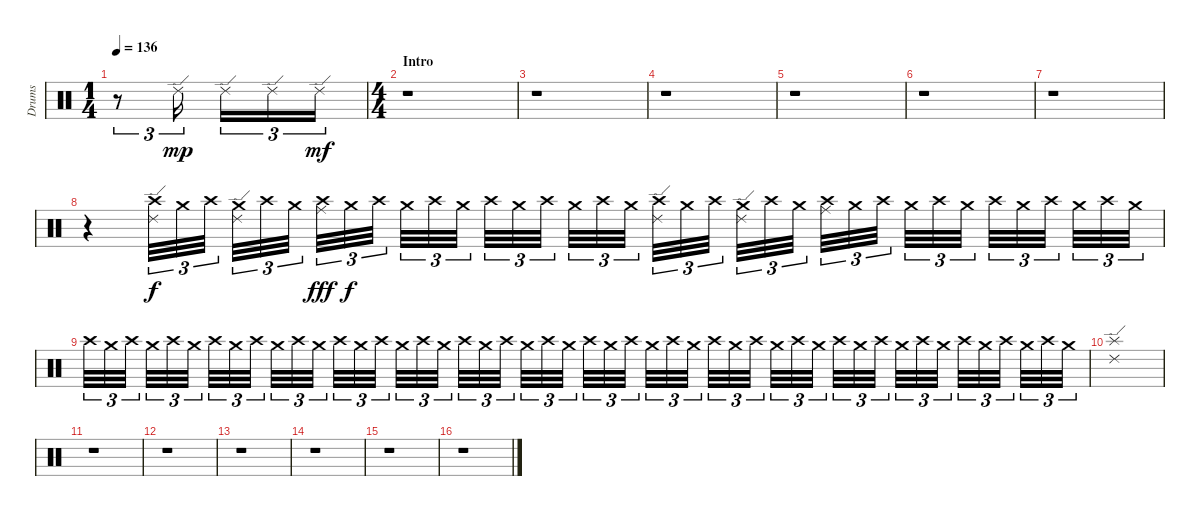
\track ("Drums" "Drums") {instrument percussion}
\staff {score}
\articulation defaults
\ts (1 4)
\tempo 136
\clef neutral
\ks c
r.8{tu (3 2) dy mp} "Ride (edge) 2".16{tu (3 2)} "Ride (edge) 2".16{tu (3 2)} "Ride (edge) 2".16{tu (3 2)} "Ride (edge) 2".16{tu (3 2) dy mf} |
\ts (4 4)
\section ("" "Intro")
r.1 |
r.1 |
r.1 |
r.1 |
r.1 |
r.1{volume 2} |
r.4{volume 7} ("Crash high (hit)" "Ride (edge) 2").32{tu (3 2) dy f} "Crash medium (hit)".32{tu (3 2)} "Crash high (hit)".32{tu (3 2)} ("Crash medium (hit)" "Ride (edge) 2").32{tu (3 2)} "Crash high (hit)".32{tu (3 2)} "Crash medium (hit)".32{tu (3 2)} ("Crash high (hit)" "Ride (middle)").32{tu (3 2) dy fff} "Crash medium (hit)".32{tu (3 2) dy f} "Crash high (hit)".32{tu (3 2)} "Crash medium (hit)".32{tu (3 2)} "Crash high (hit)".32{tu (3 2)} "Crash medium (hit)".32{tu (3 2)} "Crash high (hit)".32{tu (3 2)} "Crash medium (hit)".32{tu (3 2)} "Crash high (hit)".32{tu (3 2)} "Crash medium (hit)".32{tu (3 2)} "Crash high (hit)".32{tu (3 2)} "Crash medium (hit)".32{tu (3 2)} ("Crash high (hit)" "Ride (edge) 2").32{tu (3 2)} "Crash medium (hit)".32{tu (3 2)} "Crash high (hit)".32{tu (3 2)} ("Crash medium (hit)" "Ride (edge) 2").32{tu (3 2)} "Crash high (hit)".32{tu (3 2)} "Crash medium (hit)".32{tu (3 2)} ("Crash high (hit)" "Ride (middle)").32{tu (3 2)} "Crash medium (hit)".32{tu (3 2)} "Crash high (hit)".32{tu (3 2)} "Crash medium (hit)".32{tu (3 2)} "Crash high (hit)".32{tu (3 2)} "Crash medium (hit)".32{tu (3 2)} "Crash high (hit)".32{tu (3 2)} "Crash medium (hit)".32{tu (3 2)} "Crash high (hit)".32{tu (3 2)} "Crash medium (hit)".32{tu (3 2)} "Crash high (hit)".32{tu (3 2)} "Crash medium (hit)".32{tu (3 2)} |
"Crash high (hit)".32{tu (3 2)} "Crash medium (hit)".32{tu (3 2)} "Crash high (hit)".32{tu (3 2)} "Crash medium (hit)".32{tu (3 2)} "Crash high (hit)".32{tu (3 2)} "Crash medium (hit)".32{tu (3 2)} "Crash high (hit)".32{tu (3 2)} "Crash medium (hit)".32{tu (3 2)} "Crash high (hit)".32{tu (3 2)} "Crash medium (hit)".32{tu (3 2)} "Crash high (hit)".32{tu (3 2)} "Crash medium (hit)".32{tu (3 2)} "Crash high (hit)".32{tu (3 2)} "Crash medium (hit)".32{tu (3 2)} "Crash high (hit)".32{tu (3 2)} "Crash medium (hit)".32{tu (3 2)} "Crash high (hit)".32{tu (3 2)} "Crash medium (hit)".32{tu (3 2)} "Crash high (hit)".32{tu (3 2)} "Crash medium (hit)".32{tu (3 2)} "Crash high (hit)".32{tu (3 2)} "Crash medium (hit)".32{tu (3 2)} "Crash high (hit)".32{tu (3 2)} "Crash medium (hit)".32{tu (3 2)} "Crash high (hit)".32{tu (3 2)} "Crash medium (hit)".32{tu (3 2)} "Crash high (hit)".32{tu (3 2)} "Crash medium (hit)".32{tu (3 2)} "Crash high (hit)".32{tu (3 2)} "Crash medium (hit)".32{tu (3 2)} "Crash high (hit)".32{tu (3 2)} "Crash medium (hit)".32{tu (3 2)} "Crash high (hit)".32{tu (3 2)} "Crash medium (hit)".32{tu (3 2)} "Crash high (hit)".32{tu (3 2)} "Crash medium (hit)".32{tu (3 2)} "Crash high (hit)".32{tu (3 2)} "Crash medium (hit)".32{tu (3 2)} "Crash high (hit)".32{tu (3 2)} "Crash medium (hit)".32{tu (3 2)} "Crash high (hit)".32{tu (3 2)} "Crash medium (hit)".32{tu (3 2)} "Crash high (hit)".32{tu (3 2)} "Crash medium (hit)".32{tu (3 2)} "Crash high (hit)".32{tu (3 2)} "Crash medium (hit)".32{tu (3 2)} "Crash high (hit)".32{tu (3 2)} "Crash medium (hit)".32{tu (3 2)} |
("Splash (hit)" "Ride (edge) 2").1{volume 13} |
r.1 |
r.1 |
r.1 |
r.1 |
r.1 |
r.1
